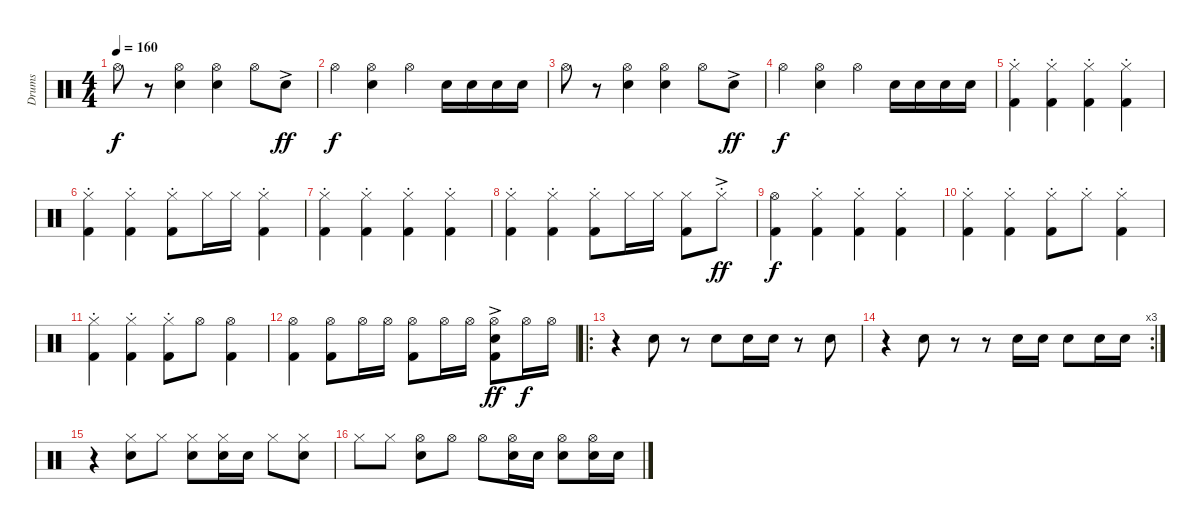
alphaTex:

\track ("Drums" "Drums") {instrument percussion}
\staff {score}
\articulation defaults
\ts (4 4)
\tempo 160
\clef neutral
\ks c "Hi-Hat (open)".8{dy f}
r.8 ("Hi-Hat (open)" "Electric Snare (hit)").4 ("Hi-Hat (open)" "Electric Snare (hit)").4 "Hi-Hat (open)".8 "Electric Snare (hit)"{ac}.8{dy ff} |
"Hi-Hat (open)".4{dy f} ("Hi-Hat (open)" "Electric Snare (hit)").4 "Hi-Hat (open)".4 "Electric Snare (hit)".16 "Electric Snare (hit)".16 "Electric Snare (hit)".16 "Electric Snare (hit)".16 |
"Hi-Hat (open)".8 r.8 ("Hi-Hat (open)" "Electric Snare (hit)").4 ("Hi-Hat (open)" "Electric Snare (hit)").4 "Hi-Hat (open)".8 "Electric Snare (hit)"{ac}.8{dy ff} |
"Hi-Hat (open)".4{dy f} ("Hi-Hat (open)" "Electric Snare (hit)").4 "Hi-Hat (open)".4 "Electric Snare (hit)".16 "Electric Snare (hit)".16 "Electric Snare (hit)".16 "Electric Snare (hit)".16 |
("Hi-Hat (closed)"{st} "Kick (hit) 2").4 ("Hi-Hat (closed)"{st} "Kick (hit) 2").4 ("Hi-Hat (closed)"{st} "Kick (hit) 2").4 ("Hi-Hat (closed)"{st} "Kick (hit) 2").4 |
("Hi-Hat (closed)"{st} "Kick (hit) 2").4 ("Hi-Hat (closed)"{st} "Kick (hit) 2").4 ("Hi-Hat (closed)"{st} "Kick (hit) 2").8 "Hi-Hat (closed)".16 "Hi-Hat (closed)".16 ("Hi-Hat (closed)"{st} "Kick (hit) 2").4 |
("Hi-Hat (closed)"{st} "Kick (hit) 2").4 ("Hi-Hat (closed)"{st} "Kick (hit) 2").4 ("Hi-Hat (closed)"{st} "Kick (hit) 2").4 ("Hi-Hat (closed)"{st} "Kick (hit) 2").4 |
("Hi-Hat (closed)"{st} "Kick (hit) 2").4 ("Hi-Hat (closed)"{st} "Kick (hit) 2").4 ("Hi-Hat (closed)"{st} "Kick (hit) 2").8 "Hi-Hat (closed)".16 "Hi-Hat (closed)".16 ("Hi-Hat (closed)" "Kick (hit) 2").8 "Hi-Hat (closed)"{ac st}.8{dy ff} |
("Hi-Hat (open)" "Kick (hit) 2").4{dy f} ("Hi-Hat (closed)"{st} "Kick (hit) 2").4 ("Hi-Hat (closed)"{st} "Kick (hit) 2").4 ("Hi-Hat (closed)"{st} "Kick (hit) 2").4 |
("Hi-Hat (closed)"{st} "Kick (hit) 2").4 ("Hi-Hat (closed)"{st} "Kick (hit) 2").4 ("Hi-Hat (closed)"{st} "Kick (hit) 2").8 "Hi-Hat (closed)"{st}.8 ("Hi-Hat (closed)"{st} "Kick (hit) 2").4 |
("Hi-Hat (closed)"{st} "Kick (hit) 2").4 ("Hi-Hat (closed)"{st} "Kick (hit) 2").4 ("Hi-Hat (closed)"{st} "Kick (hit) 2").8 "Hi-Hat (open)".8 ("Hi-Hat (open)" "Kick (hit) 2").4 |
("Hi-Hat (open)" "Kick (hit) 2").4 ("Hi-Hat (open)" "Kick (hit) 2").8 "Hi-Hat (open)".16 "Hi-Hat (open)".16 ("Hi-Hat (open)" "Kick (hit) 2").8 "Hi-Hat (open)".16 "Hi-Hat (open)".16 ("Hi-Hat (open)" "Electric Snare (hit)"{ac} "Kick (hit) 2").8{dy ff} "Hi-Hat (open)".16{dy f} "Hi-Hat (open)".16 |
\ro
r.4 "Electric Snare (hit)".8 r.8 "Electric Snare (hit)".8 "Electric Snare (hit)".16 "Electric Snare (hit)".16 r.8 "Electric Snare (hit)".8 |
\rc 3
r.4 "Electric Snare (hit)".8 r.8 r.8 "Electric Snare (hit)".16 "Electric Snare (hit)".16 "Electric Snare (hit)".8 "Electric Snare (hit)".16 "Electric Snare (hit)".16 |
r.4 ("Hi-Hat (closed)" "Electric Snare (hit)").8 "Hi-Hat (closed)".8 ("Hi-Hat (closed)" "Electric Snare (hit)").8 ("Hi-Hat (closed)" "Electric Snare (hit)").16 "Electric Snare (hit)".16 "Hi-Hat (closed)".8 ("Hi-Hat (closed)" "Electric Snare (hit)").8 |
"Hi-Hat (closed)".8 "Hi-Hat (closed)".8 ("Hi-Hat (open)" "Electric Snare (hit)").8 "Hi-Hat (open)".8 "Hi-Hat (open)".8 ("Hi-Hat (open)" "Electric Snare (hit)").16 "Electric Snare (hit)".16 ("Hi-Hat (open)" "Electric Snare (hit)").8 ("Hi-Hat (open)" "Electric Snare (hit)").16 "Electric Snare (hit)".16
